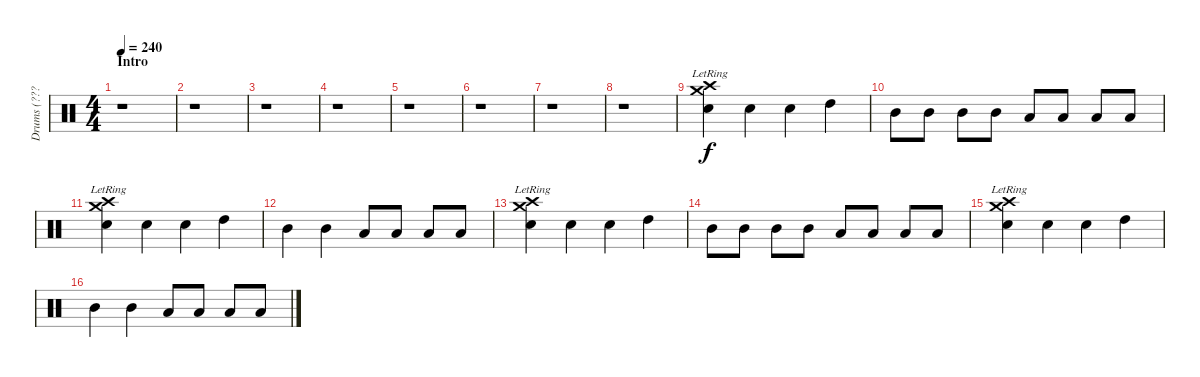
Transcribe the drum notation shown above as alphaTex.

\track ("Drums (????)" "Drums (???") {instrument percussion}
\staff {score}
\articulation defaults
\ts (4 4)
\section ("" "Intro")
\tempo 240
\clef neutral
\ks c
r.1{dy f} |
r.1 |
r.1 |
r.1 |
r.1 |
r.1 |
r.1 |
r.1 |
("Crash medium (hit)"{lr} "Crash high (hit)"{lr} "Snare (hit) 2").4 "Snare (hit) 2".4 "Snare (hit) 2".4 "High Tom (hit)".4 |
"Mid Tom (hit)".8 "Mid Tom (hit)".8 "Mid Tom (hit)".8 "Mid Tom (hit)".8 "Low Floor Tom (hit)".8 "Low Floor Tom (hit)".8 "Low Floor Tom (hit)".8 "Low Floor Tom (hit)".8 |
("Crash medium (hit)"{lr} "Crash high (hit)"{lr} "Snare (hit) 2").4 "Snare (hit) 2".4 "Snare (hit) 2".4 "High Tom (hit)".4 |
"Mid Tom (hit)".4 "Mid Tom (hit)".4 "Low Floor Tom (hit)".8 "Low Floor Tom (hit)".8 "Low Floor Tom (hit)".8 "Low Floor Tom (hit)".8 |
("Crash medium (hit)"{lr} "Crash high (hit)"{lr} "Snare (hit) 2").4 "Snare (hit) 2".4 "Snare (hit) 2".4 "High Tom (hit)".4 |
"Mid Tom (hit)".8 "Mid Tom (hit)".8 "Mid Tom (hit)".8 "Mid Tom (hit)".8 "Low Floor Tom (hit)".8 "Low Floor Tom (hit)".8 "Low Floor Tom (hit)".8 "Low Floor Tom (hit)".8 |
("Crash medium (hit)"{lr} "Crash high (hit)"{lr} "Snare (hit) 2").4 "Snare (hit) 2".4 "Snare (hit) 2".4 "High Tom (hit)".4 |
"Mid Tom (hit)".4 "Mid Tom (hit)".4 "Low Floor Tom (hit)".8 "Low Floor Tom (hit)".8 "Low Floor Tom (hit)".8 "Low Floor Tom (hit)".8
